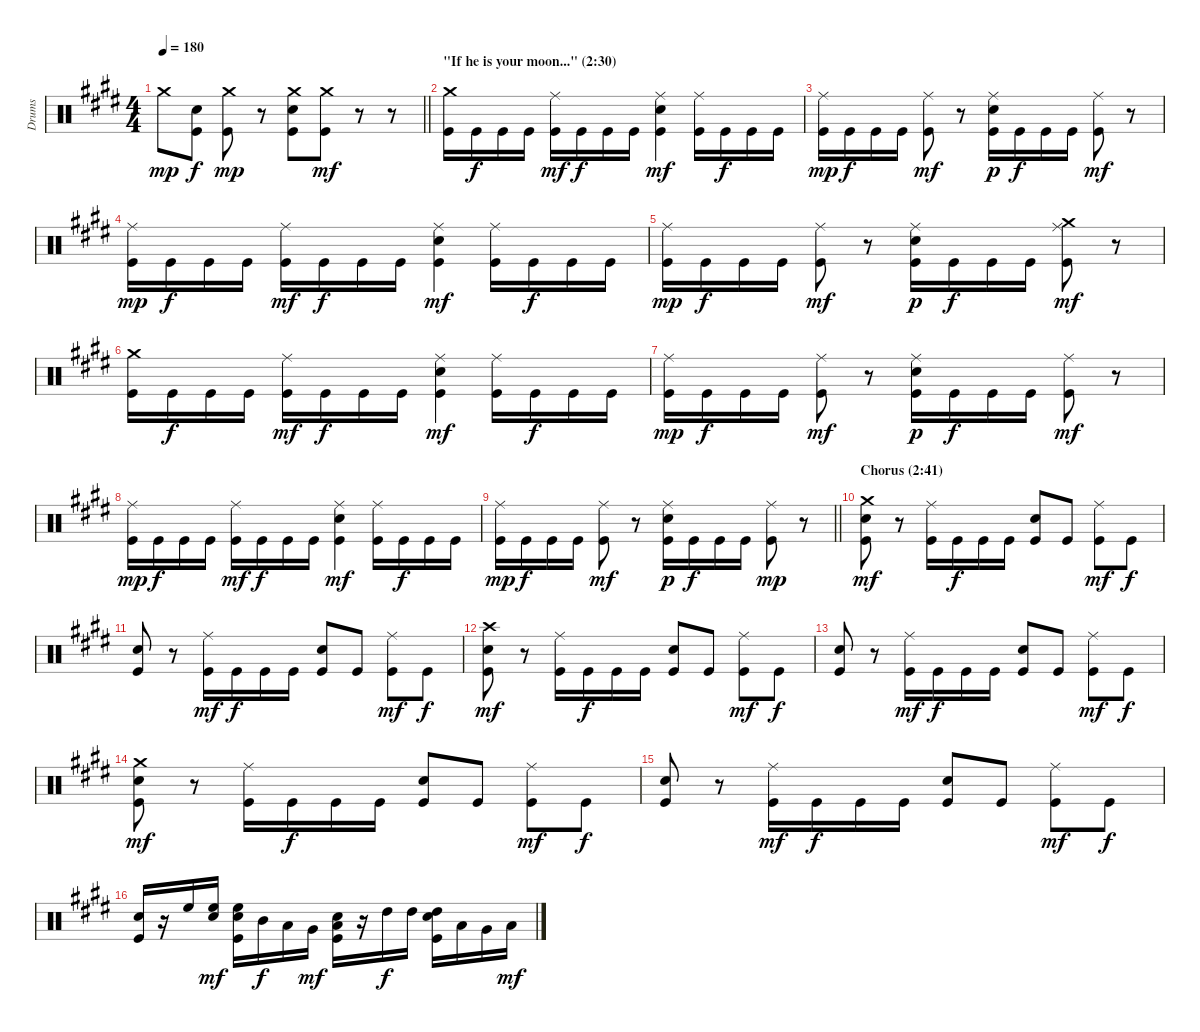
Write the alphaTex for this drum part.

\track ("Drums" "Drums") {instrument percussion}
\staff {score}
\articulation defaults
\ts (4 4)
\tempo 180
\clef neutral
\barLineRight lightlight
\ks c#minor "Crash medium (hit)".8{dy mp}
("Snare (hit) 2" "Kick (hit)").8{dy f} ("Crash medium (hit)" "Kick (hit)").8{dy mp} r.8 ("Crash medium (hit)" "Snare (hit) 2" "Kick (hit)").8 ("Crash medium (hit)" "Kick (hit)").8{dy mf} r.8 r.8 |
\section ("" "\"If he is your moon...\" (2:30)")
("Crash medium (hit)" "Kick (hit)").16 "Kick (hit)".16{dy f} "Kick (hit)".16 "Kick (hit)".16 ("Ride (middle)" "Kick (hit)").16{dy mf} "Kick (hit)".16{dy f} "Kick (hit)".16 "Kick (hit)".16 ("Ride (middle)" "Snare (hit) 2" "Kick (hit)").4{dy mf} ("Ride (middle)" "Kick (hit)").16 "Kick (hit)".16{dy f} "Kick (hit)".16 "Kick (hit)".16 |
("Ride (middle)" "Kick (hit)").16{dy mp} "Kick (hit)".16{dy f} "Kick (hit)".16 "Kick (hit)".16 ("Ride (middle)" "Kick (hit)").8{dy mf} r.8 ("Ride (middle)" "Snare (hit) 2" "Kick (hit)").16{dy p} "Kick (hit)".16{dy f} "Kick (hit)".16 "Kick (hit)".16 ("Ride (middle)" "Kick (hit)").8{dy mf} r.8 |
("Ride (middle)" "Kick (hit)").16{dy mp} "Kick (hit)".16{dy f} "Kick (hit)".16 "Kick (hit)".16 ("Ride (middle)" "Kick (hit)").16{dy mf} "Kick (hit)".16{dy f} "Kick (hit)".16 "Kick (hit)".16 ("Ride (middle)" "Snare (hit) 2" "Kick (hit)").4{dy mf} ("Ride (middle)" "Kick (hit)").16 "Kick (hit)".16{dy f} "Kick (hit)".16 "Kick (hit)".16 |
("Ride (middle)" "Kick (hit)").16{dy mp} "Kick (hit)".16{dy f} "Kick (hit)".16 "Kick (hit)".16 ("Ride (middle)" "Kick (hit)").8{dy mf} r.8 ("Ride (middle)" "Snare (hit) 2" "Kick (hit)").16{dy p} "Kick (hit)".16{dy f} "Kick (hit)".16 "Kick (hit)".16 ("Crash medium (hit)" "Ride (middle)" "Kick (hit)").8{dy mf} r.8 |
("Crash medium (hit)" "Kick (hit)").16 "Kick (hit)".16{dy f} "Kick (hit)".16 "Kick (hit)".16 ("Ride (middle)" "Kick (hit)").16{dy mf} "Kick (hit)".16{dy f} "Kick (hit)".16 "Kick (hit)".16 ("Ride (middle)" "Snare (hit) 2" "Kick (hit)").4{dy mf} ("Ride (middle)" "Kick (hit)").16 "Kick (hit)".16{dy f} "Kick (hit)".16 "Kick (hit)".16 |
("Ride (middle)" "Kick (hit)").16{dy mp} "Kick (hit)".16{dy f} "Kick (hit)".16 "Kick (hit)".16 ("Ride (middle)" "Kick (hit)").8{dy mf} r.8 ("Ride (middle)" "Snare (hit) 2" "Kick (hit)").16{dy p} "Kick (hit)".16{dy f} "Kick (hit)".16 "Kick (hit)".16 ("Ride (middle)" "Kick (hit)").8{dy mf} r.8 |
("Ride (middle)" "Kick (hit)").16{dy mp} "Kick (hit)".16{dy f} "Kick (hit)".16 "Kick (hit)".16 ("Ride (middle)" "Kick (hit)").16{dy mf} "Kick (hit)".16{dy f} "Kick (hit)".16 "Kick (hit)".16 ("Ride (middle)" "Snare (hit) 2" "Kick (hit)").4{dy mf} ("Ride (middle)" "Kick (hit)").16 "Kick (hit)".16{dy f} "Kick (hit)".16 "Kick (hit)".16 |
\barLineRight lightlight
("Ride (middle)" "Kick (hit)").16{dy mp} "Kick (hit)".16{dy f} "Kick (hit)".16 "Kick (hit)".16 ("Ride (middle)" "Kick (hit)").8{dy mf} r.8 ("Ride (middle)" "Snare (hit) 2" "Kick (hit)").16{dy p} "Kick (hit)".16{dy f} "Kick (hit)".16 "Kick (hit)".16 ("Ride (middle)" "Kick (hit)").8{dy mp} r.8 |
\section ("" "Chorus (2:41)")
("Crash medium (hit)" "Snare (hit) 2" "Kick (hit)").8{dy mf} r.8 ("Ride (middle)" "Kick (hit)").16 "Kick (hit)".16{dy f} "Kick (hit)".16 "Kick (hit)".16 ("Snare (hit) 2" "Kick (hit)").8 "Kick (hit)".8 ("Ride (middle)" "Kick (hit)").8{dy mf} "Kick (hit)".8{dy f} |
("Snare (hit) 2" "Kick (hit)").8 r.8 ("Ride (middle)" "Kick (hit)").16{dy mf} "Kick (hit)".16{dy f} "Kick (hit)".16 "Kick (hit)".16 ("Snare (hit) 2" "Kick (hit)").8 "Kick (hit)".8 ("Ride (middle)" "Kick (hit)").8{dy mf} "Kick (hit)".8{dy f} |
("Crash high (hit)" "Snare (hit) 2" "Kick (hit)").8{dy mf} r.8 ("Ride (middle)" "Kick (hit)").16 "Kick (hit)".16{dy f} "Kick (hit)".16 "Kick (hit)".16 ("Snare (hit) 2" "Kick (hit)").8 "Kick (hit)".8 ("Ride (middle)" "Kick (hit)").8{dy mf} "Kick (hit)".8{dy f} |
("Snare (hit) 2" "Kick (hit)").8 r.8 ("Ride (middle)" "Kick (hit)").16{dy mf} "Kick (hit)".16{dy f} "Kick (hit)".16 "Kick (hit)".16 ("Snare (hit) 2" "Kick (hit)").8 "Kick (hit)".8 ("Ride (middle)" "Kick (hit)").8{dy mf} "Kick (hit)".8{dy f} |
("Crash medium (hit)" "Snare (hit) 2" "Kick (hit)").8{dy mf} r.8 ("Ride (middle)" "Kick (hit)").16 "Kick (hit)".16{dy f} "Kick (hit)".16 "Kick (hit)".16 ("Snare (hit) 2" "Kick (hit)").8 "Kick (hit)".8 ("Ride (middle)" "Kick (hit)").8{dy mf} "Kick (hit)".8{dy f} |
("Snare (hit) 2" "Kick (hit)").8 r.8 ("Ride (middle)" "Kick (hit)").16{dy mf} "Kick (hit)".16{dy f} "Kick (hit)".16 "Kick (hit)".16 ("Snare (hit) 2" "Kick (hit)").8 "Kick (hit)".8 ("Ride (middle)" "Kick (hit)").8{dy mf} "Kick (hit)".8{dy f} |
("Snare (hit) 2" "Kick (hit)").16 r.16 "High Floor Tom (hit)".16 ("High Floor Tom (hit)" "Snare (hit) 2").16{dy mf} ("High Floor Tom (hit)" "Snare (hit) 2" "Kick (hit)").16 "Mid Tom (hit)".16{dy f} "Low Tom (hit)".16 "Very Low Tom (hit)".16{dy mf} ("Low Floor Tom (hit)" "Snare (hit) 2" "Kick (hit)").16 r.16 "High Tom (hit)".16{dy f} "High Tom (hit)".16 ("High Tom (hit)" "Snare (hit) 2" "Kick (hit)").16 "Low Tom (hit)".16 "Very Low Tom (hit)".16 "Low Floor Tom (hit)".16{dy mf}
